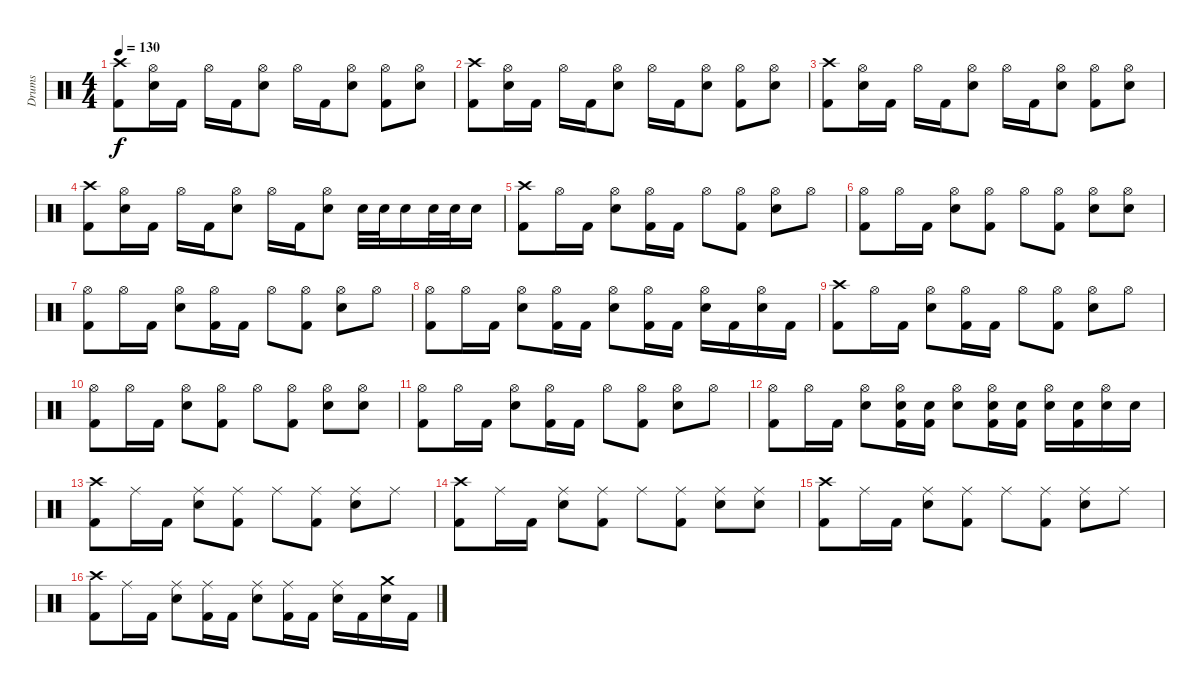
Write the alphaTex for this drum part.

\track ("Drums" "Drums") {instrument percussion}
\staff {score}
\articulation defaults
\ts (4 4)
\tempo 130
\clef neutral
\ks c
("Crash high (hit)" "Kick (hit) 2").8{dy f} ("Hi-Hat (open)" "Electric Snare (hit)").16 "Kick (hit) 2".16 "Hi-Hat (open)".16 "Kick (hit) 2".16 ("Hi-Hat (open)" "Electric Snare (hit)").8 "Hi-Hat (open)".16 "Kick (hit) 2".16 ("Hi-Hat (open)" "Electric Snare (hit)").8 ("Hi-Hat (open)" "Kick (hit) 2").8 ("Hi-Hat (open)" "Electric Snare (hit)").8 |
("Crash high (hit)" "Kick (hit) 2").8 ("Hi-Hat (open)" "Electric Snare (hit)").16 "Kick (hit) 2".16 "Hi-Hat (open)".16 "Kick (hit) 2".16 ("Hi-Hat (open)" "Electric Snare (hit)").8 "Hi-Hat (open)".16 "Kick (hit) 2".16 ("Hi-Hat (open)" "Electric Snare (hit)").8 ("Hi-Hat (open)" "Kick (hit) 2").8 ("Hi-Hat (open)" "Electric Snare (hit)").8 |
("Crash high (hit)" "Kick (hit) 2").8 ("Hi-Hat (open)" "Electric Snare (hit)").16 "Kick (hit) 2".16 "Hi-Hat (open)".16 "Kick (hit) 2".16 ("Hi-Hat (open)" "Electric Snare (hit)").8 "Hi-Hat (open)".16 "Kick (hit) 2".16 ("Hi-Hat (open)" "Electric Snare (hit)").8 ("Hi-Hat (open)" "Kick (hit) 2").8 ("Hi-Hat (open)" "Electric Snare (hit)").8 |
("Crash high (hit)" "Kick (hit) 2").8 ("Hi-Hat (open)" "Electric Snare (hit)").16 "Kick (hit) 2".16 "Hi-Hat (open)".16 "Kick (hit) 2".16 ("Hi-Hat (open)" "Electric Snare (hit)").8 "Hi-Hat (open)".16 "Kick (hit) 2".16 ("Hi-Hat (open)" "Electric Snare (hit)").8 "Electric Snare (hit)".32 "Electric Snare (hit)".32 "Electric Snare (hit)".16 "Electric Snare (hit)".32 "Electric Snare (hit)".32 "Electric Snare (hit)".16 |
("Crash high (hit)" "Kick (hit) 2").8 "Hi-Hat (open)".16 "Kick (hit) 2".16 ("Hi-Hat (open)" "Electric Snare (hit)").8 ("Hi-Hat (open)" "Kick (hit) 2").16 "Kick (hit) 2".16 "Hi-Hat (open)".8 ("Hi-Hat (open)" "Kick (hit) 2").8 ("Hi-Hat (open)" "Electric Snare (hit)").8 "Hi-Hat (open)".8 |
("Hi-Hat (open)" "Kick (hit) 2").8 "Hi-Hat (open)".16 "Kick (hit) 2".16 ("Hi-Hat (open)" "Electric Snare (hit)").8 ("Hi-Hat (open)" "Kick (hit) 2").8 "Hi-Hat (open)".8 ("Hi-Hat (open)" "Kick (hit) 2").8 ("Hi-Hat (open)" "Electric Snare (hit)").8 ("Hi-Hat (open)" "Electric Snare (hit)").8 |
("Hi-Hat (open)" "Kick (hit) 2").8 "Hi-Hat (open)".16 "Kick (hit) 2".16 ("Hi-Hat (open)" "Electric Snare (hit)").8 ("Hi-Hat (open)" "Kick (hit) 2").16 "Kick (hit) 2".16 "Hi-Hat (open)".8 ("Hi-Hat (open)" "Kick (hit) 2").8 ("Hi-Hat (open)" "Electric Snare (hit)").8 "Hi-Hat (open)".8 |
("Hi-Hat (open)" "Kick (hit) 2").8 "Hi-Hat (open)".16 "Kick (hit) 2".16 ("Hi-Hat (open)" "Electric Snare (hit)").8 ("Hi-Hat (open)" "Kick (hit) 2").16 "Kick (hit) 2".16 ("Hi-Hat (open)" "Electric Snare (hit)").8 ("Hi-Hat (open)" "Kick (hit) 2").16 "Kick (hit) 2".16 ("Hi-Hat (open)" "Electric Snare (hit)").16 "Kick (hit) 2".16 ("Hi-Hat (open)" "Electric Snare (hit)").16 "Kick (hit) 2".16 |
("Crash high (hit)" "Kick (hit) 2").8 "Hi-Hat (open)".16 "Kick (hit) 2".16 ("Hi-Hat (open)" "Electric Snare (hit)").8 ("Hi-Hat (open)" "Kick (hit) 2").16 "Kick (hit) 2".16 "Hi-Hat (open)".8 ("Hi-Hat (open)" "Kick (hit) 2").8 ("Hi-Hat (open)" "Electric Snare (hit)").8 "Hi-Hat (open)".8 |
("Hi-Hat (open)" "Kick (hit) 2").8 "Hi-Hat (open)".16 "Kick (hit) 2".16 ("Hi-Hat (open)" "Electric Snare (hit)").8 ("Hi-Hat (open)" "Kick (hit) 2").8 "Hi-Hat (open)".8 ("Hi-Hat (open)" "Kick (hit) 2").8 ("Hi-Hat (open)" "Electric Snare (hit)").8 ("Hi-Hat (open)" "Electric Snare (hit)").8 |
("Hi-Hat (open)" "Kick (hit) 2").8 "Hi-Hat (open)".16 "Kick (hit) 2".16 ("Hi-Hat (open)" "Electric Snare (hit)").8 ("Hi-Hat (open)" "Kick (hit) 2").16 "Kick (hit) 2".16 "Hi-Hat (open)".8 ("Hi-Hat (open)" "Kick (hit) 2").8 ("Hi-Hat (open)" "Electric Snare (hit)").8 "Hi-Hat (open)".8 |
("Hi-Hat (open)" "Kick (hit) 2").8 "Hi-Hat (open)".16 "Kick (hit) 2".16 ("Hi-Hat (open)" "Electric Snare (hit)").8 ("Hi-Hat (open)" "Electric Snare (hit)" "Kick (hit) 2").16 ("Electric Snare (hit)" "Kick (hit) 2").16 ("Hi-Hat (open)" "Electric Snare (hit)").8 ("Hi-Hat (open)" "Electric Snare (hit)" "Kick (hit) 2").16 ("Electric Snare (hit)" "Kick (hit) 2").16 ("Hi-Hat (open)" "Electric Snare (hit)").16 ("Electric Snare (hit)" "Kick (hit) 2").16 ("Hi-Hat (open)" "Electric Snare (hit)").16 "Electric Snare (hit)".16 |
("Crash high (hit)" "Kick (hit) 2").8 "Ride (middle)".16 "Kick (hit) 2".16 ("Ride (middle)" "Electric Snare (hit)").8 ("Ride (middle)" "Kick (hit) 2").8 "Ride (middle)".8 ("Ride (middle)" "Kick (hit) 2").8 ("Ride (middle)" "Electric Snare (hit)").8 "Ride (middle)".8 |
("Crash high (hit)" "Kick (hit) 2").8 "Ride (middle)".16 "Kick (hit) 2".16 ("Ride (middle)" "Electric Snare (hit)").8 ("Ride (middle)" "Kick (hit) 2").8 "Ride (middle)".8 ("Ride (middle)" "Kick (hit) 2").8 ("Ride (middle)" "Electric Snare (hit)").8 ("Ride (middle)" "Electric Snare (hit)").8 |
("Crash high (hit)" "Kick (hit) 2").8 "Ride (middle)".16 "Kick (hit) 2".16 ("Ride (middle)" "Electric Snare (hit)").8 ("Ride (middle)" "Kick (hit) 2").8 "Ride (middle)".8 ("Ride (middle)" "Kick (hit) 2").8 ("Ride (middle)" "Electric Snare (hit)").8 "Ride (middle)".8 |
("Crash high (hit)" "Kick (hit) 2").8 "Ride (middle)".16 "Kick (hit) 2".16 ("Ride (middle)" "Electric Snare (hit)").8 ("Ride (middle)" "Kick (hit) 2").16 "Kick (hit) 2".16 ("Ride (middle)" "Electric Snare (hit)").8 ("Ride (middle)" "Kick (hit) 2").16 "Kick (hit) 2".16 ("Ride (middle)" "Electric Snare (hit)").16 "Kick (hit) 2".16 ("Crash medium (hit)" "Electric Snare (hit)").16 "Kick (hit) 2".16
